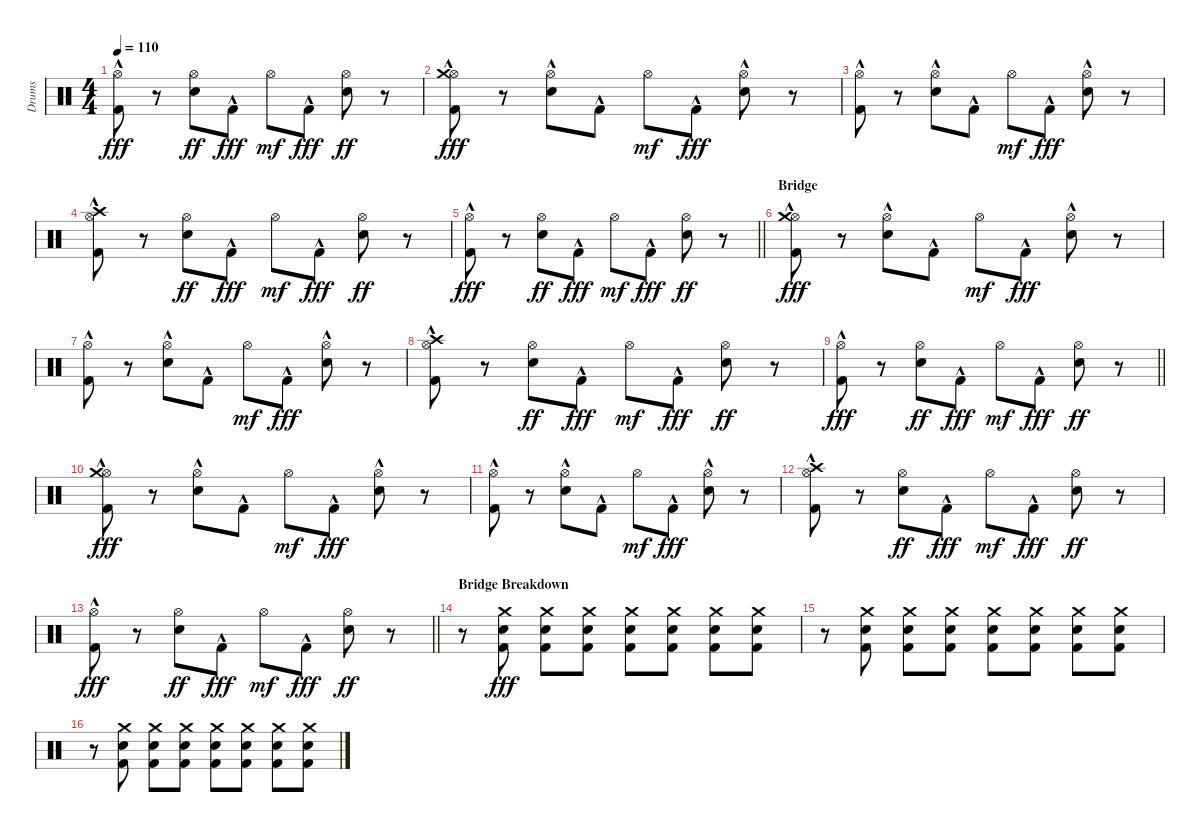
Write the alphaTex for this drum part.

\track ("Drums" "Drums") {instrument percussion}
\staff {score}
\articulation defaults
\ts (4 4)
\tempo 110
\clef neutral
\ks c
("Hi-Hat (open)" "Kick (hit) 2"{hac}).8{dy fff} r.8 ("Hi-Hat (open)" "Snare (hit) 2").8{dy ff} "Kick (hit) 2"{hac}.8{dy fff} "Hi-Hat (open)".8{dy mf} "Kick (hit) 2"{hac}.8{dy fff} ("Hi-Hat (open)" "Snare (hit) 2").8{dy ff} r.8 |
("Hi-Hat (open)" "Crash medium (hit)" "Kick (hit) 2"{hac}).8{dy fff} r.8 ("Hi-Hat (open)" "Snare (hit) 2"{hac}).8 "Kick (hit) 2"{hac}.8 "Hi-Hat (open)".8{dy mf} "Kick (hit) 2"{hac}.8{dy fff} ("Hi-Hat (open)" "Snare (hit) 2"{hac}).8 r.8 |
("Hi-Hat (open)" "Kick (hit) 2"{hac}).8 r.8 ("Hi-Hat (open)" "Snare (hit) 2"{hac}).8 "Kick (hit) 2"{hac}.8 "Hi-Hat (open)".8{dy mf} "Kick (hit) 2"{hac}.8{dy fff} ("Hi-Hat (open)" "Snare (hit) 2"{hac}).8 r.8 |
("Hi-Hat (open)" "Crash high (hit)" "Kick (hit) 2"{hac}).8 r.8 ("Hi-Hat (open)" "Snare (hit) 2").8{dy ff} "Kick (hit) 2"{hac}.8{dy fff} "Hi-Hat (open)".8{dy mf} "Kick (hit) 2"{hac}.8{dy fff} ("Hi-Hat (open)" "Snare (hit) 2").8{dy ff} r.8 |
\barLineRight lightlight
("Hi-Hat (open)" "Kick (hit) 2"{hac}).8{dy fff} r.8 ("Hi-Hat (open)" "Snare (hit) 2").8{dy ff} "Kick (hit) 2"{hac}.8{dy fff} "Hi-Hat (open)".8{dy mf} "Kick (hit) 2"{hac}.8{dy fff} ("Hi-Hat (open)" "Snare (hit) 2").8{dy ff} r.8 |
\section ("" "Bridge")
("Hi-Hat (open)" "Crash medium (hit)" "Kick (hit) 2"{hac}).8{dy fff} r.8 ("Hi-Hat (open)" "Snare (hit) 2"{hac}).8 "Kick (hit) 2"{hac}.8 "Hi-Hat (open)".8{dy mf} "Kick (hit) 2"{hac}.8{dy fff} ("Hi-Hat (open)" "Snare (hit) 2"{hac}).8 r.8 |
("Hi-Hat (open)" "Kick (hit) 2"{hac}).8 r.8 ("Hi-Hat (open)" "Snare (hit) 2"{hac}).8 "Kick (hit) 2"{hac}.8 "Hi-Hat (open)".8{dy mf} "Kick (hit) 2"{hac}.8{dy fff} ("Hi-Hat (open)" "Snare (hit) 2"{hac}).8 r.8 |
("Hi-Hat (open)" "Crash high (hit)" "Kick (hit) 2"{hac}).8 r.8 ("Hi-Hat (open)" "Snare (hit) 2").8{dy ff} "Kick (hit) 2"{hac}.8{dy fff} "Hi-Hat (open)".8{dy mf} "Kick (hit) 2"{hac}.8{dy fff} ("Hi-Hat (open)" "Snare (hit) 2").8{dy ff} r.8 |
\barLineRight lightlight
("Hi-Hat (open)" "Kick (hit) 2"{hac}).8{dy fff} r.8 ("Hi-Hat (open)" "Snare (hit) 2").8{dy ff} "Kick (hit) 2"{hac}.8{dy fff} "Hi-Hat (open)".8{dy mf} "Kick (hit) 2"{hac}.8{dy fff} ("Hi-Hat (open)" "Snare (hit) 2").8{dy ff} r.8 |
("Hi-Hat (open)" "Crash medium (hit)" "Kick (hit) 2"{hac}).8{dy fff} r.8 ("Hi-Hat (open)" "Snare (hit) 2"{hac}).8 "Kick (hit) 2"{hac}.8 "Hi-Hat (open)".8{dy mf} "Kick (hit) 2"{hac}.8{dy fff} ("Hi-Hat (open)" "Snare (hit) 2"{hac}).8 r.8 |
("Hi-Hat (open)" "Kick (hit) 2"{hac}).8 r.8 ("Hi-Hat (open)" "Snare (hit) 2"{hac}).8 "Kick (hit) 2"{hac}.8 "Hi-Hat (open)".8{dy mf} "Kick (hit) 2"{hac}.8{dy fff} ("Hi-Hat (open)" "Snare (hit) 2"{hac}).8 r.8 |
("Hi-Hat (open)" "Crash high (hit)" "Kick (hit) 2"{hac}).8 r.8 ("Hi-Hat (open)" "Snare (hit) 2").8{dy ff} "Kick (hit) 2"{hac}.8{dy fff} "Hi-Hat (open)".8{dy mf} "Kick (hit) 2"{hac}.8{dy fff} ("Hi-Hat (open)" "Snare (hit) 2").8{dy ff} r.8 |
\barLineRight lightlight
("Hi-Hat (open)" "Kick (hit) 2"{hac}).8{dy fff} r.8 ("Hi-Hat (open)" "Snare (hit) 2").8{dy ff} "Kick (hit) 2"{hac}.8{dy fff} "Hi-Hat (open)".8{dy mf} "Kick (hit) 2"{hac}.8{dy fff} ("Hi-Hat (open)" "Snare (hit) 2").8{dy ff} r.8 |
\section ("" "Bridge Breakdown")
r.8 ("Snare (hit) 2" "Crash medium (hit)" "Kick (hit) 2").8{dy fff} ("Snare (hit) 2" "Crash medium (hit)" "Kick (hit) 2").8 ("Snare (hit) 2" "Crash medium (hit)" "Kick (hit) 2").8 ("Snare (hit) 2" "Crash medium (hit)" "Kick (hit) 2").8 ("Snare (hit) 2" "Crash medium (hit)" "Kick (hit) 2").8 ("Snare (hit) 2" "Crash medium (hit)" "Kick (hit) 2").8 ("Snare (hit) 2" "Crash medium (hit)" "Kick (hit) 2").8 |
r.8 ("Snare (hit) 2" "Crash medium (hit)" "Kick (hit) 2").8 ("Snare (hit) 2" "Crash medium (hit)" "Kick (hit) 2").8 ("Snare (hit) 2" "Crash medium (hit)" "Kick (hit) 2").8 ("Snare (hit) 2" "Crash medium (hit)" "Kick (hit) 2").8 ("Snare (hit) 2" "Crash medium (hit)" "Kick (hit) 2").8 ("Snare (hit) 2" "Crash medium (hit)" "Kick (hit) 2").8 ("Snare (hit) 2" "Crash medium (hit)" "Kick (hit) 2").8 |
r.8 ("Snare (hit) 2" "Crash medium (hit)" "Kick (hit) 2").8 ("Snare (hit) 2" "Crash medium (hit)" "Kick (hit) 2").8 ("Snare (hit) 2" "Crash medium (hit)" "Kick (hit) 2").8 ("Snare (hit) 2" "Crash medium (hit)" "Kick (hit) 2").8 ("Snare (hit) 2" "Crash medium (hit)" "Kick (hit) 2").8 ("Snare (hit) 2" "Crash medium (hit)" "Kick (hit) 2").8 ("Snare (hit) 2" "Crash medium (hit)" "Kick (hit) 2").8
